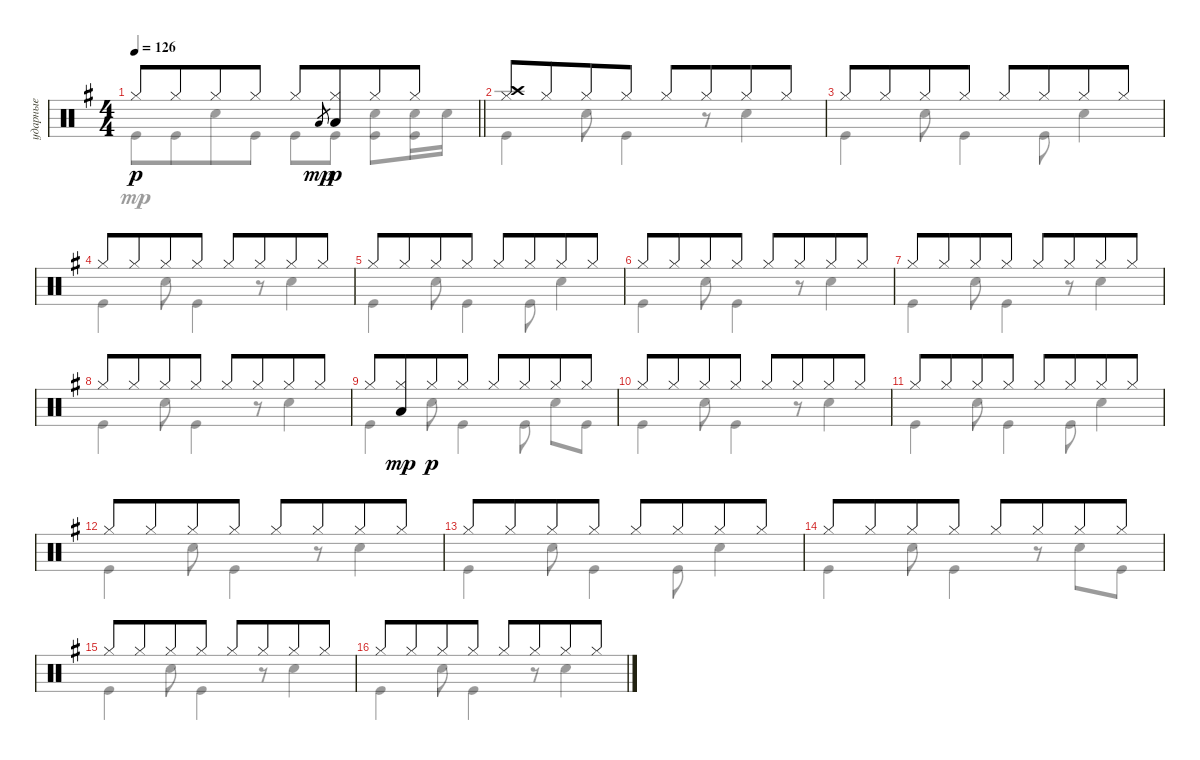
\track ("ударные" "ударные") {instrument percussion}
\staff {score}
\articulation defaults
\voice
\ts (4 4)
\tempo 126
\clef neutral
\barLineRight lightlight
\ks eminor "Hi-Hat (closed)".8{dy p} "Hi-Hat (closed)".8{beam merge} "Hi-Hat (closed)".8 "Hi-Hat (closed)".8 "Hi-Hat (closed)".8 "Low Tom (hit)".8{gr dy mp}
("Hi-Hat (closed)" "Low Tom (hit)").8{dy p beam merge} "Hi-Hat (closed)".8 "Hi-Hat (closed)".8 |
\section ("" "")
("Hi-Hat (closed)" "Crash high (hit)").8 "Hi-Hat (closed)".8{beam merge} "Hi-Hat (closed)".8 "Hi-Hat (closed)".8 "Hi-Hat (closed)".8 "Hi-Hat (closed)".8{beam merge} "Hi-Hat (closed)".8 "Hi-Hat (closed)".8 |
"Hi-Hat (closed)".8 "Hi-Hat (closed)".8{beam merge} "Hi-Hat (closed)".8 "Hi-Hat (closed)".8 "Hi-Hat (closed)".8 "Hi-Hat (closed)".8{beam merge} "Hi-Hat (closed)".8 "Hi-Hat (closed)".8 |
"Hi-Hat (closed)".8 "Hi-Hat (closed)".8{beam merge} "Hi-Hat (closed)".8 "Hi-Hat (closed)".8 "Hi-Hat (closed)".8 "Hi-Hat (closed)".8{beam merge} "Hi-Hat (closed)".8 "Hi-Hat (closed)".8 |
"Hi-Hat (closed)".8 "Hi-Hat (closed)".8{beam merge} "Hi-Hat (closed)".8 "Hi-Hat (closed)".8 "Hi-Hat (closed)".8 "Hi-Hat (closed)".8{beam merge} "Hi-Hat (closed)".8 "Hi-Hat (closed)".8 |
"Hi-Hat (closed)".8 "Hi-Hat (closed)".8{beam merge} "Hi-Hat (closed)".8 "Hi-Hat (closed)".8 "Hi-Hat (closed)".8 "Hi-Hat (closed)".8{beam merge} "Hi-Hat (closed)".8 "Hi-Hat (closed)".8 |
"Hi-Hat (closed)".8 "Hi-Hat (closed)".8{beam merge} "Hi-Hat (closed)".8 "Hi-Hat (closed)".8 "Hi-Hat (closed)".8 "Hi-Hat (closed)".8{beam merge} "Hi-Hat (closed)".8 "Hi-Hat (closed)".8 |
"Hi-Hat (closed)".8 "Hi-Hat (closed)".8{beam merge} "Hi-Hat (closed)".8 "Hi-Hat (closed)".8 "Hi-Hat (closed)".8 "Hi-Hat (closed)".8{beam merge} "Hi-Hat (closed)".8 "Hi-Hat (closed)".8 |
"Hi-Hat (closed)".8 ("Hi-Hat (closed)" "Low Tom (hit)").8{dy mp beam merge} "Hi-Hat (closed)".8{dy p} "Hi-Hat (closed)".8 "Hi-Hat (closed)".8 "Hi-Hat (closed)".8{beam merge} "Hi-Hat (closed)".8 "Hi-Hat (closed)".8 |
"Hi-Hat (closed)".8 "Hi-Hat (closed)".8{beam merge} "Hi-Hat (closed)".8 "Hi-Hat (closed)".8 "Hi-Hat (closed)".8 "Hi-Hat (closed)".8{beam merge} "Hi-Hat (closed)".8 "Hi-Hat (closed)".8 |
"Hi-Hat (closed)".8 "Hi-Hat (closed)".8{beam merge} "Hi-Hat (closed)".8 "Hi-Hat (closed)".8 "Hi-Hat (closed)".8 "Hi-Hat (closed)".8{beam merge} "Hi-Hat (closed)".8 "Hi-Hat (closed)".8 |
"Hi-Hat (closed)".8 "Hi-Hat (closed)".8{beam merge} "Hi-Hat (closed)".8 "Hi-Hat (closed)".8 "Hi-Hat (closed)".8 "Hi-Hat (closed)".8{beam merge} "Hi-Hat (closed)".8 "Hi-Hat (closed)".8 |
"Hi-Hat (closed)".8 "Hi-Hat (closed)".8{beam merge} "Hi-Hat (closed)".8 "Hi-Hat (closed)".8 "Hi-Hat (closed)".8 "Hi-Hat (closed)".8{beam merge} "Hi-Hat (closed)".8 "Hi-Hat (closed)".8 |
"Hi-Hat (closed)".8 "Hi-Hat (closed)".8{beam merge} "Hi-Hat (closed)".8 "Hi-Hat (closed)".8 "Hi-Hat (closed)".8 "Hi-Hat (closed)".8{beam merge} "Hi-Hat (closed)".8 "Hi-Hat (closed)".8 |
"Hi-Hat (closed)".8 "Hi-Hat (closed)".8{beam merge} "Hi-Hat (closed)".8 "Hi-Hat (closed)".8 "Hi-Hat (closed)".8 "Hi-Hat (closed)".8{beam merge} "Hi-Hat (closed)".8 "Hi-Hat (closed)".8 |
"Hi-Hat (closed)".8 "Hi-Hat (closed)".8{beam merge} "Hi-Hat (closed)".8 "Hi-Hat (closed)".8 "Hi-Hat (closed)".8 "Hi-Hat (closed)".8{beam merge} "Hi-Hat (closed)".8 "Hi-Hat (closed)".8
\voice
\clef neutral
\ottava regular
\simile none
\barLineRight lightlight
\ks eminor "Kick (hit)".8{dy mp} "Kick (hit)".8{beam merge} "Snare (hit) 2".8 "Kick (hit)".8 "Kick (hit)".8 "Kick (hit)".8
("Snare (hit) 2" "Kick (hit)").8 ("Snare (hit) 2" "Kick (hit)").16 "Snare (hit) 2".16 |
"Kick (hit)".4 "Snare (hit) 2".8 "Kick (hit)".4 r.8 "Snare (hit) 2".4 |
"Kick (hit)".4 "Snare (hit) 2".8 "Kick (hit)".4 "Kick (hit)".8 "Snare (hit) 2".4 |
"Kick (hit)".4 "Snare (hit) 2".8 "Kick (hit)".4 r.8 "Snare (hit) 2".4 |
"Kick (hit)".4 "Snare (hit) 2".8 "Kick (hit)".4 "Kick (hit)".8 "Snare (hit) 2".4 |
"Kick (hit)".4 "Snare (hit) 2".8 "Kick (hit)".4 r.8 "Snare (hit) 2".4 |
"Kick (hit)".4 "Snare (hit) 2".8 "Kick (hit)".4 r.8 "Snare (hit) 2".4 |
"Kick (hit)".4 "Snare (hit) 2".8 "Kick (hit)".4 r.8 "Snare (hit) 2".4 |
"Kick (hit)".4 "Snare (hit) 2".8 "Kick (hit)".4 "Kick (hit)".8 "Snare (hit) 2".8 "Kick (hit)".8 |
"Kick (hit)".4 "Snare (hit) 2".8 "Kick (hit)".4 r.8 "Snare (hit) 2".4 |
"Kick (hit)".4 "Snare (hit) 2".8 "Kick (hit)".4 "Kick (hit)".8 "Snare (hit) 2".4 |
"Kick (hit)".4 "Snare (hit) 2".8 "Kick (hit)".4 r.8 "Snare (hit) 2".4 |
"Kick (hit)".4 "Snare (hit) 2".8 "Kick (hit)".4 "Kick (hit)".8 "Snare (hit) 2".4 |
"Kick (hit)".4 "Snare (hit) 2".8 "Kick (hit)".4 r.8 "Snare (hit) 2".8 "Kick (hit)".8 |
"Kick (hit)".4 "Snare (hit) 2".8 "Kick (hit)".4 r.8 "Snare (hit) 2".4 |
"Kick (hit)".4 "Snare (hit) 2".8 "Kick (hit)".4 r.8 "Snare (hit) 2".4
